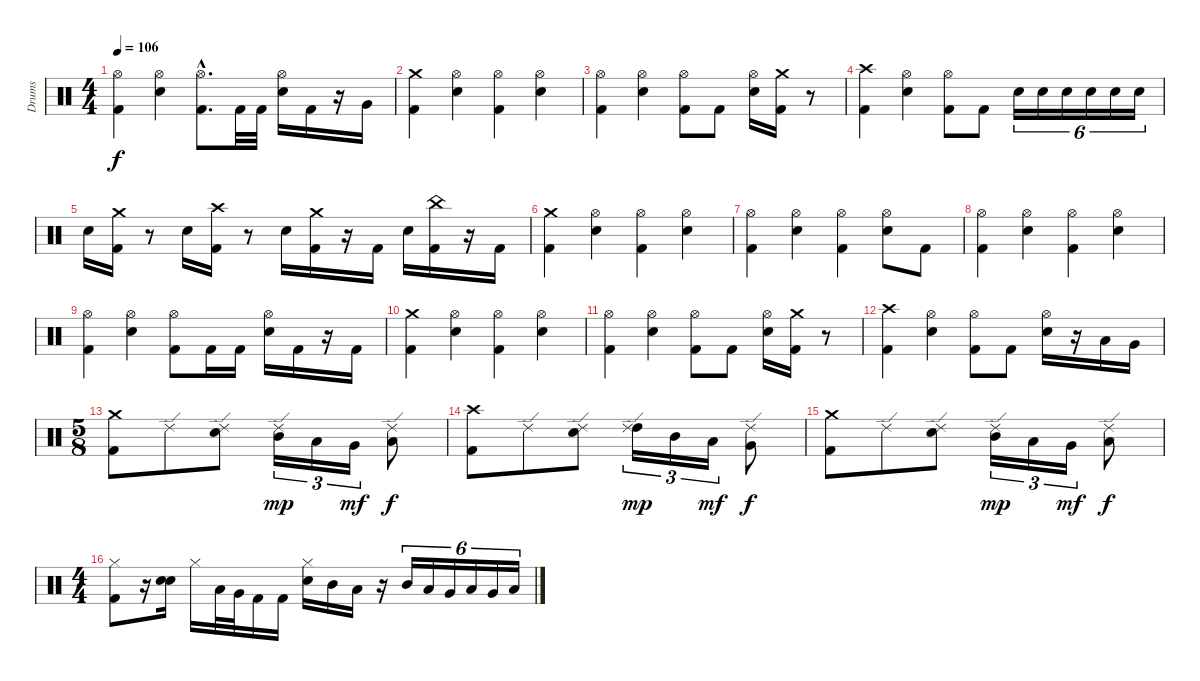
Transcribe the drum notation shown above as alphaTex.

\track ("Drums" "Drums") {instrument percussion}
\staff {score}
\articulation defaults
\ts (4 4)
\tempo 106
\clef neutral
\ks c
("Hi-Hat (open)" "Kick (hit) 2").4{dy f} ("Hi-Hat (open)" "Electric Snare (hit)").4 ("Hi-Hat (open)" "Kick (hit) 2"{hac}).8{d} "Kick (hit) 2".32 "Kick (hit) 2".32 ("Hi-Hat (open)" "Electric Snare (hit)").16 "Kick (hit) 2".16 r.16 "Very Low Tom (hit)".16 |
("Crash medium (hit)" "Kick (hit) 2").4 ("Hi-Hat (open)" "Electric Snare (hit)").4 ("Hi-Hat (open)" "Kick (hit) 2").4 ("Hi-Hat (open)" "Electric Snare (hit)").4 |
("Hi-Hat (open)" "Kick (hit) 2").4 ("Hi-Hat (open)" "Electric Snare (hit)").4 ("Hi-Hat (open)" "Kick (hit) 2").8 "Kick (hit) 2".8 ("Hi-Hat (open)" "Electric Snare (hit)").16 ("Crash medium (hit)" "Kick (hit) 2").16 r.8 |
("Crash high (hit)" "Kick (hit) 2").4 ("Hi-Hat (open)" "Electric Snare (hit)").4 ("Hi-Hat (open)" "Kick (hit) 2").8 "Kick (hit) 2".8 "Electric Snare (hit)".16{tu (6 4)} "Electric Snare (hit)".16{tu (6 4)} "Electric Snare (hit)".16{tu (6 4)} "Electric Snare (hit)".16{tu (6 4)} "Electric Snare (hit)".16{tu (6 4)} "Electric Snare (hit)".16{tu (6 4)} |
"Electric Snare (hit)".16 ("Kick (hit) 2" "Crash medium (hit)").16 r.8 "Electric Snare (hit)".16 ("Crash high (hit)" "Kick (hit) 2").16 r.8 "Electric Snare (hit)".16 ("Crash medium (hit)" "Kick (hit) 2").16 r.16 "Kick (hit) 2".16 "Electric Snare (hit)".16 ("China (hit)" "Kick (hit) 2").16 r.16 "Kick (hit) 2".16 |
("Crash medium (hit)" "Kick (hit) 2").4 ("Hi-Hat (open)" "Electric Snare (hit)").4 ("Hi-Hat (open)" "Kick (hit) 2").4 ("Hi-Hat (open)" "Electric Snare (hit)").4 |
("Hi-Hat (open)" "Kick (hit) 2").4 ("Hi-Hat (open)" "Electric Snare (hit)").4 ("Hi-Hat (open)" "Kick (hit) 2").4 ("Hi-Hat (open)" "Electric Snare (hit)").8 "Kick (hit) 2".8 |
("Hi-Hat (open)" "Kick (hit) 2").4 ("Hi-Hat (open)" "Electric Snare (hit)").4 ("Hi-Hat (open)" "Kick (hit) 2").4 ("Hi-Hat (open)" "Electric Snare (hit)").4 |
("Hi-Hat (open)" "Kick (hit) 2").4 ("Hi-Hat (open)" "Electric Snare (hit)").4 ("Hi-Hat (open)" "Kick (hit) 2").8 "Kick (hit) 2".16 "Kick (hit) 2".16 ("Hi-Hat (open)" "Electric Snare (hit)").16 "Kick (hit) 2".16 r.16 "Kick (hit) 2".16 |
("Crash medium (hit)" "Kick (hit) 2").4 ("Hi-Hat (open)" "Electric Snare (hit)").4 ("Hi-Hat (open)" "Kick (hit) 2").4 ("Hi-Hat (open)" "Electric Snare (hit)").4 |
("Hi-Hat (open)" "Kick (hit) 2").4 ("Hi-Hat (open)" "Electric Snare (hit)").4 ("Hi-Hat (open)" "Kick (hit) 2").8 "Kick (hit) 2".8 ("Hi-Hat (open)" "Electric Snare (hit)").16 ("Crash medium (hit)" "Kick (hit) 2").16 r.8 |
("Crash high (hit)" "Kick (hit) 2").4 ("Hi-Hat (open)" "Electric Snare (hit)").4 ("Hi-Hat (open)" "Kick (hit) 2").8 "Kick (hit) 2".8 ("Hi-Hat (open)" "Electric Snare (hit)").16 r.16 "Low Tom (hit)".16 "Very Low Tom (hit)".16 |
\ts (5 8)
("Crash medium (hit)" "Kick (hit) 2").8 "Ride (edge) 2".8 ("Ride (edge) 2" "Electric Snare (hit)").8 ("Ride (edge) 2" "Mid Tom (hit)").16{tu (3 2) dy mp} "Low Tom (hit)".16{tu (3 2)} "Very Low Tom (hit)".16{tu (3 2) dy mf} ("Ride (edge) 2" "Low Floor Tom (hit)").8{dy f} |
("Crash high (hit)" "Kick (hit) 2").8 "Ride (edge) 2".8 ("Ride (edge) 2" "Electric Snare (hit)").8 ("High Tom (hit)" "Ride (edge) 2").16{tu (3 2) dy mp} "Mid Tom (hit)".16{tu (3 2)} "Low Tom (hit)".16{tu (3 2) dy mf} ("Very Low Tom (hit)" "Ride (edge) 2").8{dy f} |
("Crash medium (hit)" "Kick (hit) 2").8 "Ride (edge) 2".8 ("Ride (edge) 2" "Electric Snare (hit)").8 ("Ride (edge) 2" "Mid Tom (hit)").16{tu (3 2) dy mp} "Low Tom (hit)".16{tu (3 2)} "Very Low Tom (hit)".16{tu (3 2) dy mf} ("Ride (edge) 2" "Low Floor Tom (hit)").8{dy f} |
\ts (4 4)
("Hi-Hat (closed)" "Kick (hit) 2").8 r.16 ("Electric Snare (hit)" "Electric Snare (hit)").16 "Hi-Hat (closed)".16 "Low Tom (hit)".32 "Very Low Tom (hit)".32 "Kick (hit) 2".16 "Kick (hit) 2".16 ("Hi-Hat (closed)" "Electric Snare (hit)").16 "Mid Tom (hit)".16 "Low Tom (hit)".16 r.16 "Mid Tom (hit)".16{tu (6 4)} "Low Tom (hit)".16{tu (6 4)} "Very Low Tom (hit)".16{tu (6 4)} "Low Tom (hit)".16{tu (6 4)} "Very Low Tom (hit)".16{tu (6 4)} "Low Floor Tom (hit)".16{tu (6 4)}
